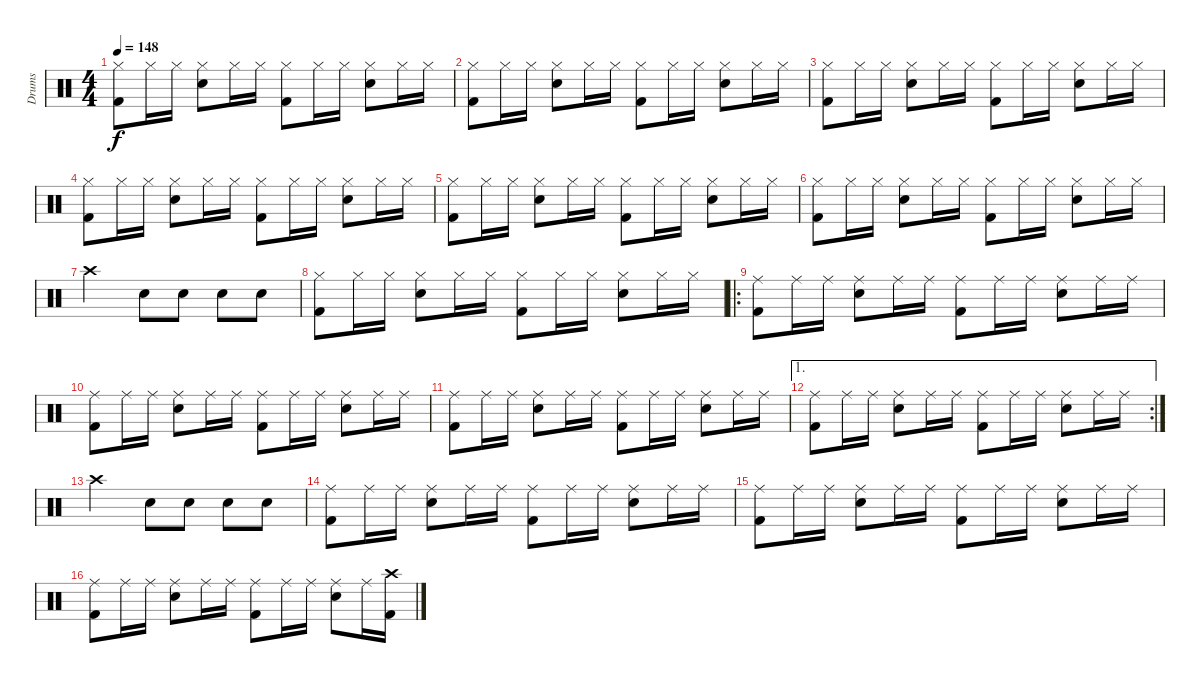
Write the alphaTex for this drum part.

\track ("Drums" "Drums") {instrument percussion}
\staff {score}
\articulation defaults
\ts (4 4)
\tempo 148
\clef neutral
\ks c
("Kick (hit) 2" "Hi-Hat (closed)").8{dy f} "Hi-Hat (closed)".16 "Hi-Hat (closed)".16 ("Snare (hit) 2" "Hi-Hat (closed)").8 "Hi-Hat (closed)".16 "Hi-Hat (closed)".16 ("Kick (hit) 2" "Hi-Hat (closed)").8 "Hi-Hat (closed)".16 "Hi-Hat (closed)".16 ("Snare (hit) 2" "Hi-Hat (closed)").8 "Hi-Hat (closed)".16 "Hi-Hat (closed)".16 |
("Kick (hit) 2" "Hi-Hat (closed)").8 "Hi-Hat (closed)".16 "Hi-Hat (closed)".16 ("Snare (hit) 2" "Hi-Hat (closed)").8 "Hi-Hat (closed)".16 "Hi-Hat (closed)".16 ("Kick (hit) 2" "Hi-Hat (closed)").8 "Hi-Hat (closed)".16 "Hi-Hat (closed)".16 ("Snare (hit) 2" "Hi-Hat (closed)").8 "Hi-Hat (closed)".16 "Hi-Hat (closed)".16 |
("Kick (hit) 2" "Hi-Hat (closed)").8 "Hi-Hat (closed)".16 "Hi-Hat (closed)".16 ("Snare (hit) 2" "Hi-Hat (closed)").8 "Hi-Hat (closed)".16 "Hi-Hat (closed)".16 ("Kick (hit) 2" "Hi-Hat (closed)").8 "Hi-Hat (closed)".16 "Hi-Hat (closed)".16 ("Snare (hit) 2" "Hi-Hat (closed)").8 "Hi-Hat (closed)".16 "Hi-Hat (closed)".16 |
("Kick (hit) 2" "Hi-Hat (closed)").8 "Hi-Hat (closed)".16 "Hi-Hat (closed)".16 ("Snare (hit) 2" "Hi-Hat (closed)").8 "Hi-Hat (closed)".16 "Hi-Hat (closed)".16 ("Kick (hit) 2" "Hi-Hat (closed)").8 "Hi-Hat (closed)".16 "Hi-Hat (closed)".16 ("Snare (hit) 2" "Hi-Hat (closed)").8 "Hi-Hat (closed)".16 "Hi-Hat (closed)".16 |
("Kick (hit) 2" "Hi-Hat (closed)").8 "Hi-Hat (closed)".16 "Hi-Hat (closed)".16 ("Snare (hit) 2" "Hi-Hat (closed)").8 "Hi-Hat (closed)".16 "Hi-Hat (closed)".16 ("Kick (hit) 2" "Hi-Hat (closed)").8 "Hi-Hat (closed)".16 "Hi-Hat (closed)".16 ("Snare (hit) 2" "Hi-Hat (closed)").8 "Hi-Hat (closed)".16 "Hi-Hat (closed)".16 |
("Kick (hit) 2" "Hi-Hat (closed)").8 "Hi-Hat (closed)".16 "Hi-Hat (closed)".16 ("Snare (hit) 2" "Hi-Hat (closed)").8 "Hi-Hat (closed)".16 "Hi-Hat (closed)".16 ("Kick (hit) 2" "Hi-Hat (closed)").8 "Hi-Hat (closed)".16 "Hi-Hat (closed)".16 ("Snare (hit) 2" "Hi-Hat (closed)").8 "Hi-Hat (closed)".16 "Hi-Hat (closed)".16 |
"Crash high (hit)".2 "Snare (hit) 2".8 "Snare (hit) 2".8 "Snare (hit) 2".8 "Snare (hit) 2".8 |
("Kick (hit) 2" "Hi-Hat (closed)").8 "Hi-Hat (closed)".16 "Hi-Hat (closed)".16 ("Snare (hit) 2" "Hi-Hat (closed)").8 "Hi-Hat (closed)".16 "Hi-Hat (closed)".16 ("Kick (hit) 2" "Hi-Hat (closed)").8 "Hi-Hat (closed)".16 "Hi-Hat (closed)".16 ("Snare (hit) 2" "Hi-Hat (closed)").8 "Hi-Hat (closed)".16 "Hi-Hat (closed)".16 |
\ro
("Kick (hit) 2" "Ride (middle)").8 "Ride (middle)".16 "Ride (middle)".16 ("Snare (hit) 2" "Ride (middle)").8 "Ride (middle)".16 "Ride (middle)".16 ("Kick (hit) 2" "Ride (middle)").8 "Ride (middle)".16 "Ride (middle)".16 ("Snare (hit) 2" "Ride (middle)").8 "Ride (middle)".16 "Ride (middle)".16 |
("Kick (hit) 2" "Ride (middle)").8 "Ride (middle)".16 "Ride (middle)".16 ("Snare (hit) 2" "Ride (middle)").8 "Ride (middle)".16 "Ride (middle)".16 ("Kick (hit) 2" "Ride (middle)").8 "Ride (middle)".16 "Ride (middle)".16 ("Snare (hit) 2" "Ride (middle)").8 "Ride (middle)".16 "Ride (middle)".16 |
("Kick (hit) 2" "Ride (middle)").8 "Ride (middle)".16 "Ride (middle)".16 ("Snare (hit) 2" "Ride (middle)").8 "Ride (middle)".16 "Ride (middle)".16 ("Kick (hit) 2" "Ride (middle)").8 "Ride (middle)".16 "Ride (middle)".16 ("Snare (hit) 2" "Ride (middle)").8 "Ride (middle)".16 "Ride (middle)".16 |
\ae 1
\rc 2
("Kick (hit) 2" "Ride (middle)").8 "Ride (middle)".16 "Ride (middle)".16 ("Snare (hit) 2" "Ride (middle)").8 "Ride (middle)".16 "Ride (middle)".16 ("Kick (hit) 2" "Ride (middle)").8 "Ride (middle)".16 "Ride (middle)".16 ("Snare (hit) 2" "Ride (middle)").8 "Ride (middle)".16 "Ride (middle)".16 |
"Crash high (hit)".2 "Snare (hit) 2".8 "Snare (hit) 2".8 "Snare (hit) 2".8 "Snare (hit) 2".8 |
("Kick (hit) 2" "Ride (middle)").8 "Ride (middle)".16 "Ride (middle)".16 ("Snare (hit) 2" "Ride (middle)").8 "Ride (middle)".16 "Ride (middle)".16 ("Kick (hit) 2" "Ride (middle)").8 "Ride (middle)".16 "Ride (middle)".16 ("Snare (hit) 2" "Ride (middle)").8 "Ride (middle)".16 "Ride (middle)".16 |
("Kick (hit) 2" "Ride (middle)").8 "Ride (middle)".16 "Ride (middle)".16 ("Snare (hit) 2" "Ride (middle)").8 "Ride (middle)".16 "Ride (middle)".16 ("Kick (hit) 2" "Ride (middle)").8 "Ride (middle)".16 "Ride (middle)".16 ("Snare (hit) 2" "Ride (middle)").8 "Ride (middle)".16 "Ride (middle)".16 |
("Kick (hit) 2" "Ride (middle)").8 "Ride (middle)".16 "Ride (middle)".16 ("Snare (hit) 2" "Ride (middle)").8 "Ride (middle)".16 "Ride (middle)".16 ("Kick (hit) 2" "Ride (middle)").8 "Ride (middle)".16 "Ride (middle)".16 ("Snare (hit) 2" "Ride (middle)").8 "Ride (middle)".16 ("Kick (hit) 2" "Crash high (hit)").16
